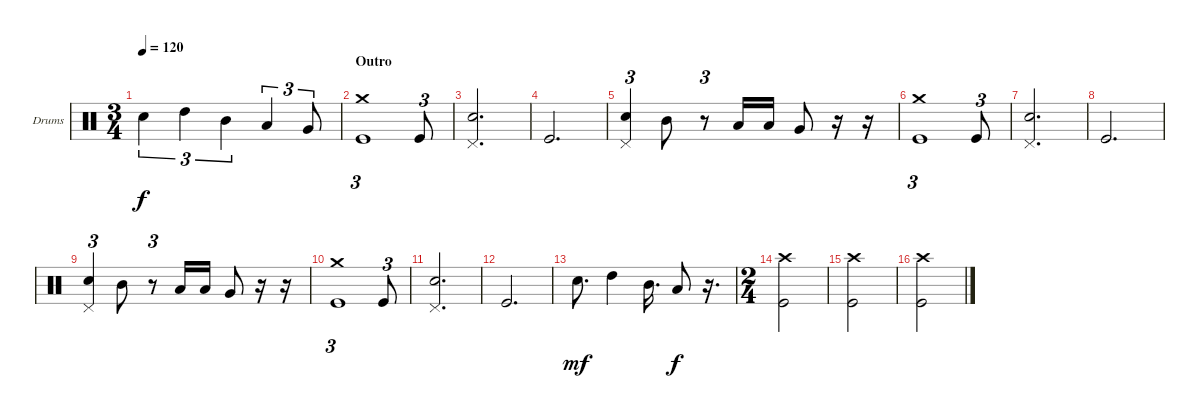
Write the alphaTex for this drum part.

\bracketExtendMode groupsimilarinstruments
\firstSystemTrackNameOrientation horizontal
\otherSystemsTrackNameOrientation horizontal
\track ("Drumkit" "Drums") {instrument percussion}
\staff {score}
\articulation defaults
\ts (3 4)
\tempo 120
\clef neutral
\ks c "Snare (hit) 2".4{tu (3 2) dy f} "High Tom (hit)".4{tu (3 2)} "Mid Tom (hit)".4{tu (3 2)} "Low Tom (hit)".4{tu (3 2)} "Very Low Tom (hit)".8{tu (3 2)}
|
\section ("" "Outro")
("Crash medium (hit)" "Kick (hit)").1{tu (3 2)} "Kick (hit)".8{tu (3 2)} |
("Snare (hit) 2" "Pedal Hi-Hat (hit)").2{d} |
"Kick (hit)".2{d} |
("Snare (hit) 2" "Pedal Hi-Hat (hit)").4{tu (3 2)} "Mid Tom (hit)".8 r.8{tu (3 2)} "Low Tom (hit)".16 "Low Tom (hit)".16 "Very Low Tom (hit)".8 r.16 r.16 |
("Crash medium (hit)" "Kick (hit)").1{tu (3 2)} "Kick (hit)".8{tu (3 2)} |
("Snare (hit) 2" "Pedal Hi-Hat (hit)").2{d} |
"Kick (hit)".2{d} |
("Snare (hit) 2" "Pedal Hi-Hat (hit)").4{tu (3 2)} "Mid Tom (hit)".8 r.8{tu (3 2)} "Low Tom (hit)".16 "Low Tom (hit)".16 "Very Low Tom (hit)".8 r.16 r.16 |
("Crash medium (hit)" "Kick (hit)").1{tu (3 2)} "Kick (hit)".8{tu (3 2)} |
("Snare (hit) 2" "Pedal Hi-Hat (hit)").2{d} |
"Kick (hit)".2{d} |
"Snare (hit) 2".8{d dy mf} "High Tom (hit)".4 "Mid Tom (hit)".16{d} "Low Tom (hit)".8{dy f} r.16{d} |
\ts (2 4)
\beaming (8 2 2)
("Crash high (hit)" "Kick (hit)").2 |
("Crash high (hit)" "Kick (hit)").2 |
("Crash high (hit)" "Kick (hit)").2
